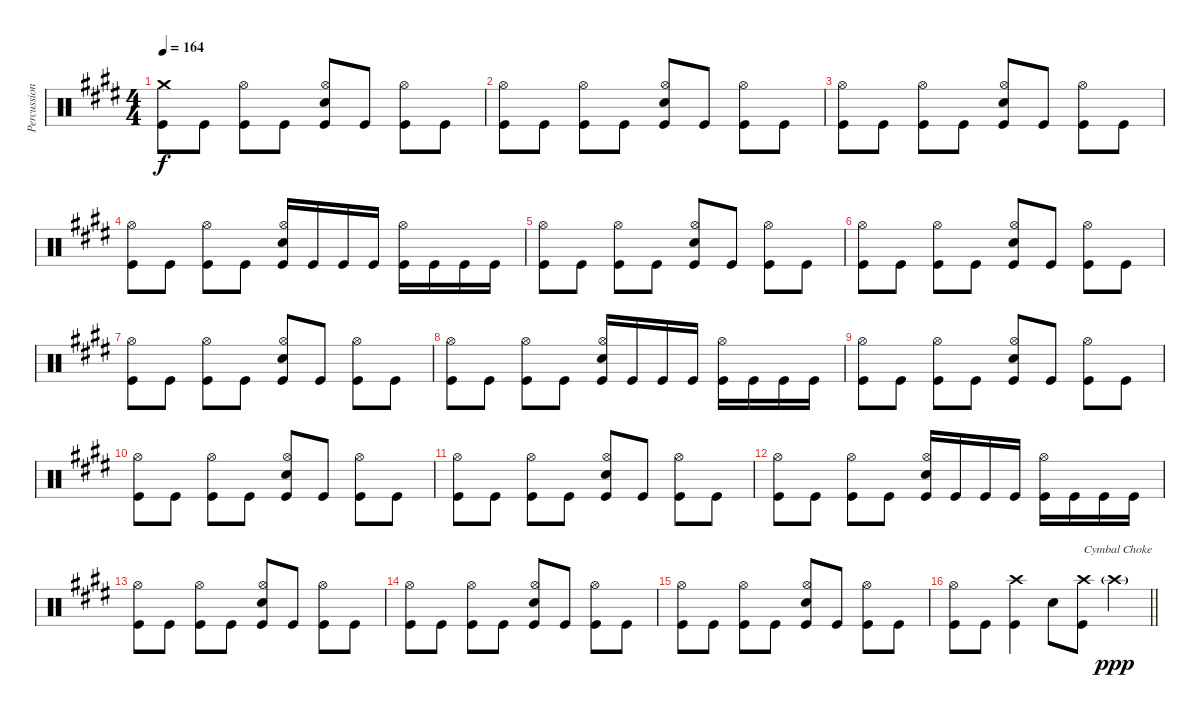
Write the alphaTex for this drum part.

\track ("Percussion" "Percussion") {instrument percussion}
\staff {score}
\articulation defaults
\ts (4 4)
\tempo 164
\clef neutral
\ks e
("Crash medium (hit)" "Kick (hit)").8{dy f} "Kick (hit)".8 ("Hi-Hat (open)" "Kick (hit)").8 "Kick (hit)".8 ("Hi-Hat (open)" "Electric Snare (hit)" "Kick (hit)").8 "Kick (hit)".8 ("Hi-Hat (open)" "Kick (hit)").8 "Kick (hit)".8 |
("Hi-Hat (open)" "Kick (hit)").8 "Kick (hit)".8 ("Hi-Hat (open)" "Kick (hit)").8 "Kick (hit)".8 ("Hi-Hat (open)" "Electric Snare (hit)" "Kick (hit)").8 "Kick (hit)".8 ("Hi-Hat (open)" "Kick (hit)").8 "Kick (hit)".8 |
("Hi-Hat (open)" "Kick (hit)").8 "Kick (hit)".8 ("Hi-Hat (open)" "Kick (hit)").8 "Kick (hit)".8 ("Hi-Hat (open)" "Electric Snare (hit)" "Kick (hit)").8 "Kick (hit)".8 ("Hi-Hat (open)" "Kick (hit)").8 "Kick (hit)".8 |
("Hi-Hat (open)" "Kick (hit)").8 "Kick (hit)".8 ("Hi-Hat (open)" "Kick (hit)").8 "Kick (hit)".8 ("Hi-Hat (open)" "Electric Snare (hit)" "Kick (hit)").16 "Kick (hit)".16 "Kick (hit)".16 "Kick (hit)".16 ("Hi-Hat (open)" "Kick (hit)").16 "Kick (hit)".16 "Kick (hit)".16 "Kick (hit)".16 |
("Hi-Hat (open)" "Kick (hit)").8 "Kick (hit)".8 ("Hi-Hat (open)" "Kick (hit)").8 "Kick (hit)".8 ("Hi-Hat (open)" "Electric Snare (hit)" "Kick (hit)").8 "Kick (hit)".8 ("Hi-Hat (open)" "Kick (hit)").8 "Kick (hit)".8 |
("Hi-Hat (open)" "Kick (hit)").8 "Kick (hit)".8 ("Hi-Hat (open)" "Kick (hit)").8 "Kick (hit)".8 ("Hi-Hat (open)" "Electric Snare (hit)" "Kick (hit)").8 "Kick (hit)".8 ("Hi-Hat (open)" "Kick (hit)").8 "Kick (hit)".8 |
("Hi-Hat (open)" "Kick (hit)").8 "Kick (hit)".8 ("Hi-Hat (open)" "Kick (hit)").8 "Kick (hit)".8 ("Hi-Hat (open)" "Electric Snare (hit)" "Kick (hit)").8 "Kick (hit)".8 ("Hi-Hat (open)" "Kick (hit)").8 "Kick (hit)".8 |
("Hi-Hat (open)" "Kick (hit)").8 "Kick (hit)".8 ("Hi-Hat (open)" "Kick (hit)").8 "Kick (hit)".8 ("Hi-Hat (open)" "Electric Snare (hit)" "Kick (hit)").16 "Kick (hit)".16 "Kick (hit)".16 "Kick (hit)".16 ("Hi-Hat (open)" "Kick (hit)").16 "Kick (hit)".16 "Kick (hit)".16 "Kick (hit)".16 |
("Hi-Hat (open)" "Kick (hit)").8 "Kick (hit)".8 ("Hi-Hat (open)" "Kick (hit)").8 "Kick (hit)".8 ("Hi-Hat (open)" "Electric Snare (hit)" "Kick (hit)").8 "Kick (hit)".8 ("Hi-Hat (open)" "Kick (hit)").8 "Kick (hit)".8 |
("Hi-Hat (open)" "Kick (hit)").8 "Kick (hit)".8 ("Hi-Hat (open)" "Kick (hit)").8 "Kick (hit)".8 ("Hi-Hat (open)" "Electric Snare (hit)" "Kick (hit)").8 "Kick (hit)".8 ("Hi-Hat (open)" "Kick (hit)").8 "Kick (hit)".8 |
("Hi-Hat (open)" "Kick (hit)").8 "Kick (hit)".8 ("Hi-Hat (open)" "Kick (hit)").8 "Kick (hit)".8 ("Hi-Hat (open)" "Electric Snare (hit)" "Kick (hit)").8 "Kick (hit)".8 ("Hi-Hat (open)" "Kick (hit)").8 "Kick (hit)".8 |
("Hi-Hat (open)" "Kick (hit)").8 "Kick (hit)".8 ("Hi-Hat (open)" "Kick (hit)").8 "Kick (hit)".8 ("Hi-Hat (open)" "Electric Snare (hit)" "Kick (hit)").16 "Kick (hit)".16 "Kick (hit)".16 "Kick (hit)".16 ("Hi-Hat (open)" "Kick (hit)").16 "Kick (hit)".16 "Kick (hit)".16 "Kick (hit)".16 |
("Hi-Hat (open)" "Kick (hit)").8 "Kick (hit)".8 ("Hi-Hat (open)" "Kick (hit)").8 "Kick (hit)".8 ("Hi-Hat (open)" "Electric Snare (hit)" "Kick (hit)").8 "Kick (hit)".8 ("Hi-Hat (open)" "Kick (hit)").8 "Kick (hit)".8 |
("Hi-Hat (open)" "Kick (hit)").8 "Kick (hit)".8 ("Hi-Hat (open)" "Kick (hit)").8 "Kick (hit)".8 ("Hi-Hat (open)" "Electric Snare (hit)" "Kick (hit)").8 "Kick (hit)".8 ("Hi-Hat (open)" "Kick (hit)").8 "Kick (hit)".8 |
("Hi-Hat (open)" "Kick (hit)").8 "Kick (hit)".8 ("Hi-Hat (open)" "Kick (hit)").8 "Kick (hit)".8 ("Hi-Hat (open)" "Electric Snare (hit)" "Kick (hit)").8 "Kick (hit)".8 ("Hi-Hat (open)" "Kick (hit)").8 "Kick (hit)".8 |
\barLineRight lightlight
("Hi-Hat (open)" "Kick (hit)").8 "Kick (hit)".8 ("Crash high (hit)" "Kick (hit)").4 "Electric Snare (hit)".8 ("Crash high (hit)" "Kick (hit)").8{txt "Cymbal Choke"} "Crash high (hit)"{g}.4{dy ppp volume 0}
